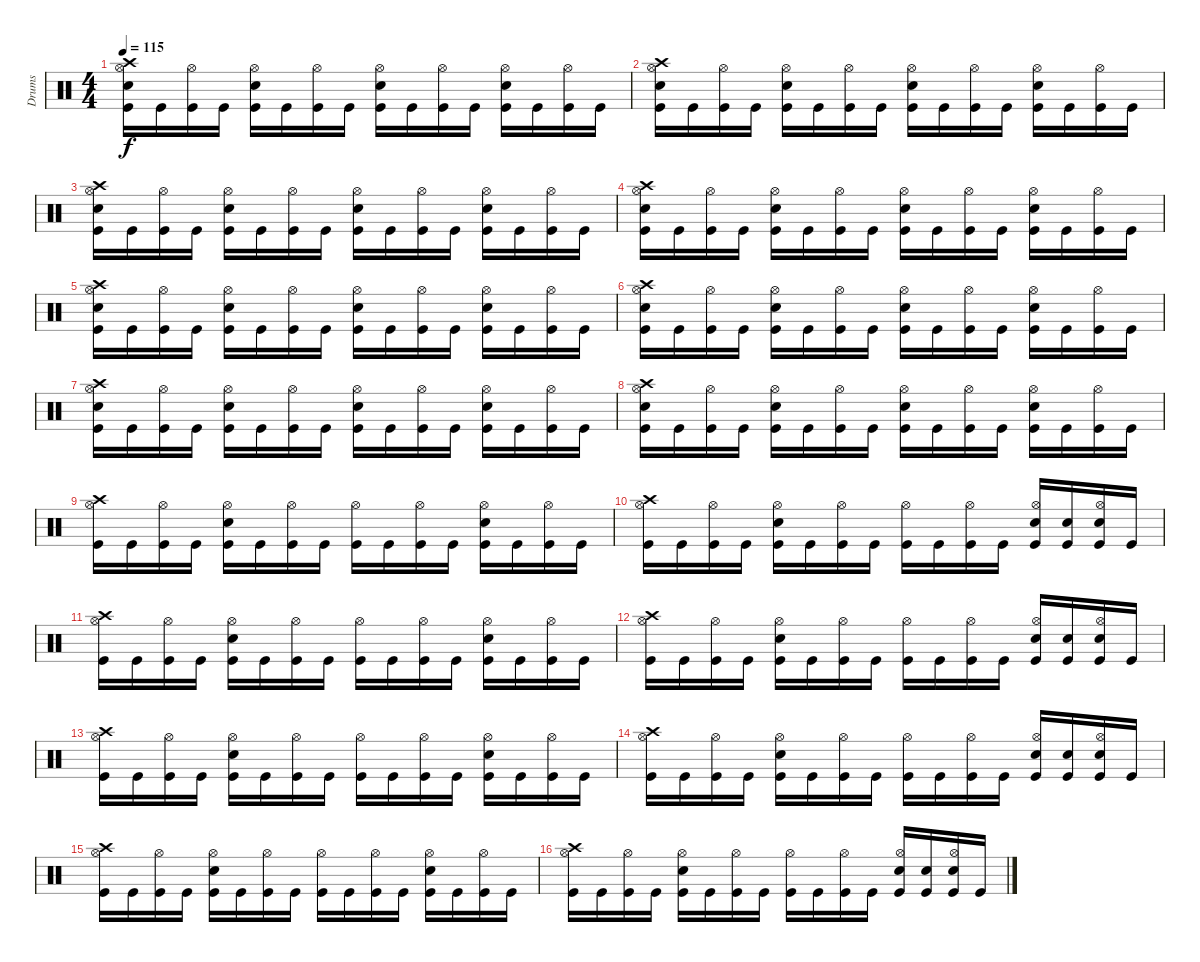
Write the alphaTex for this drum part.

\track ("Drums" "Drums") {instrument percussion}
\staff {score}
\articulation defaults
\ts (4 4)
\tempo 115
\clef neutral
\ks c
("Snare (hit) 2" "Crash high (hit)" "Kick (hit)" "Hi-Hat (open)").16{dy f} "Kick (hit)".16 ("Kick (hit)" "Hi-Hat (open)").16 "Kick (hit)".16 ("Snare (hit) 2" "Kick (hit)" "Hi-Hat (open)").16 "Kick (hit)".16 ("Kick (hit)" "Hi-Hat (open)").16 "Kick (hit)".16 ("Snare (hit) 2" "Hi-Hat (open)" "Kick (hit)").16 "Kick (hit)".16 ("Kick (hit)" "Hi-Hat (open)").16 "Kick (hit)".16 ("Snare (hit) 2" "Hi-Hat (open)" "Kick (hit)").16 "Kick (hit)".16 ("Kick (hit)" "Hi-Hat (open)").16 "Kick (hit)".16 |
("Snare (hit) 2" "Crash high (hit)" "Kick (hit)" "Hi-Hat (open)").16 "Kick (hit)".16 ("Kick (hit)" "Hi-Hat (open)").16 "Kick (hit)".16 ("Snare (hit) 2" "Kick (hit)" "Hi-Hat (open)").16 "Kick (hit)".16 ("Kick (hit)" "Hi-Hat (open)").16 "Kick (hit)".16 ("Snare (hit) 2" "Hi-Hat (open)" "Kick (hit)").16 "Kick (hit)".16 ("Kick (hit)" "Hi-Hat (open)").16 "Kick (hit)".16 ("Snare (hit) 2" "Hi-Hat (open)" "Kick (hit)").16 "Kick (hit)".16 ("Kick (hit)" "Hi-Hat (open)").16 "Kick (hit)".16 |
("Snare (hit) 2" "Crash high (hit)" "Kick (hit)" "Hi-Hat (open)").16 "Kick (hit)".16 ("Kick (hit)" "Hi-Hat (open)").16 "Kick (hit)".16 ("Snare (hit) 2" "Kick (hit)" "Hi-Hat (open)").16 "Kick (hit)".16 ("Kick (hit)" "Hi-Hat (open)").16 "Kick (hit)".16 ("Snare (hit) 2" "Hi-Hat (open)" "Kick (hit)").16 "Kick (hit)".16 ("Kick (hit)" "Hi-Hat (open)").16 "Kick (hit)".16 ("Snare (hit) 2" "Hi-Hat (open)" "Kick (hit)").16 "Kick (hit)".16 ("Kick (hit)" "Hi-Hat (open)").16 "Kick (hit)".16 |
("Snare (hit) 2" "Crash high (hit)" "Kick (hit)" "Hi-Hat (open)").16 "Kick (hit)".16 ("Kick (hit)" "Hi-Hat (open)").16 "Kick (hit)".16 ("Snare (hit) 2" "Kick (hit)" "Hi-Hat (open)").16 "Kick (hit)".16 ("Kick (hit)" "Hi-Hat (open)").16 "Kick (hit)".16 ("Snare (hit) 2" "Hi-Hat (open)" "Kick (hit)").16 "Kick (hit)".16 ("Kick (hit)" "Hi-Hat (open)").16 "Kick (hit)".16 ("Snare (hit) 2" "Hi-Hat (open)" "Kick (hit)").16 "Kick (hit)".16 ("Kick (hit)" "Hi-Hat (open)").16 "Kick (hit)".16 |
("Snare (hit) 2" "Crash high (hit)" "Kick (hit)" "Hi-Hat (open)").16 "Kick (hit)".16 ("Kick (hit)" "Hi-Hat (open)").16 "Kick (hit)".16 ("Snare (hit) 2" "Kick (hit)" "Hi-Hat (open)").16 "Kick (hit)".16 ("Kick (hit)" "Hi-Hat (open)").16 "Kick (hit)".16 ("Snare (hit) 2" "Hi-Hat (open)" "Kick (hit)").16 "Kick (hit)".16 ("Kick (hit)" "Hi-Hat (open)").16 "Kick (hit)".16 ("Snare (hit) 2" "Hi-Hat (open)" "Kick (hit)").16 "Kick (hit)".16 ("Kick (hit)" "Hi-Hat (open)").16 "Kick (hit)".16 |
("Snare (hit) 2" "Crash high (hit)" "Kick (hit)" "Hi-Hat (open)").16 "Kick (hit)".16 ("Kick (hit)" "Hi-Hat (open)").16 "Kick (hit)".16 ("Snare (hit) 2" "Kick (hit)" "Hi-Hat (open)").16 "Kick (hit)".16 ("Kick (hit)" "Hi-Hat (open)").16 "Kick (hit)".16 ("Snare (hit) 2" "Hi-Hat (open)" "Kick (hit)").16 "Kick (hit)".16 ("Kick (hit)" "Hi-Hat (open)").16 "Kick (hit)".16 ("Snare (hit) 2" "Hi-Hat (open)" "Kick (hit)").16 "Kick (hit)".16 ("Kick (hit)" "Hi-Hat (open)").16 "Kick (hit)".16 |
("Snare (hit) 2" "Crash high (hit)" "Kick (hit)" "Hi-Hat (open)").16 "Kick (hit)".16 ("Kick (hit)" "Hi-Hat (open)").16 "Kick (hit)".16 ("Snare (hit) 2" "Kick (hit)" "Hi-Hat (open)").16 "Kick (hit)".16 ("Kick (hit)" "Hi-Hat (open)").16 "Kick (hit)".16 ("Snare (hit) 2" "Hi-Hat (open)" "Kick (hit)").16 "Kick (hit)".16 ("Kick (hit)" "Hi-Hat (open)").16 "Kick (hit)".16 ("Snare (hit) 2" "Hi-Hat (open)" "Kick (hit)").16 "Kick (hit)".16 ("Kick (hit)" "Hi-Hat (open)").16 "Kick (hit)".16 |
("Snare (hit) 2" "Crash high (hit)" "Kick (hit)" "Hi-Hat (open)").16 "Kick (hit)".16 ("Kick (hit)" "Hi-Hat (open)").16 "Kick (hit)".16 ("Snare (hit) 2" "Kick (hit)" "Hi-Hat (open)").16 "Kick (hit)".16 ("Kick (hit)" "Hi-Hat (open)").16 "Kick (hit)".16 ("Snare (hit) 2" "Hi-Hat (open)" "Kick (hit)").16 "Kick (hit)".16 ("Kick (hit)" "Hi-Hat (open)").16 "Kick (hit)".16 ("Snare (hit) 2" "Hi-Hat (open)" "Kick (hit)").16 "Kick (hit)".16 ("Kick (hit)" "Hi-Hat (open)").16 "Kick (hit)".16 |
("Crash high (hit)" "Kick (hit)" "Hi-Hat (open)").16 "Kick (hit)".16 ("Kick (hit)" "Hi-Hat (open)").16 "Kick (hit)".16 ("Electric Snare (hit)" "Kick (hit)" "Hi-Hat (open)").16 "Kick (hit)".16 ("Kick (hit)" "Hi-Hat (open)").16 "Kick (hit)".16 ("Hi-Hat (open)" "Kick (hit)").16 "Kick (hit)".16 ("Kick (hit)" "Hi-Hat (open)").16 "Kick (hit)".16 ("Electric Snare (hit)" "Hi-Hat (open)" "Kick (hit)").16 "Kick (hit)".16 ("Kick (hit)" "Hi-Hat (open)").16 "Kick (hit)".16 |
("Crash high (hit)" "Kick (hit)" "Hi-Hat (open)").16 "Kick (hit)".16 ("Kick (hit)" "Hi-Hat (open)").16 "Kick (hit)".16 ("Electric Snare (hit)" "Kick (hit)" "Hi-Hat (open)").16 "Kick (hit)".16 ("Kick (hit)" "Hi-Hat (open)").16 "Kick (hit)".16 ("Hi-Hat (open)" "Kick (hit)").16 "Kick (hit)".16 ("Kick (hit)" "Hi-Hat (open)").16 "Kick (hit)".16 ("Electric Snare (hit)" "Hi-Hat (open)" "Kick (hit)").16 ("Electric Snare (hit)" "Kick (hit)").16 ("Electric Snare (hit)" "Kick (hit)" "Hi-Hat (open)").16 "Kick (hit)".16 |
("Crash high (hit)" "Kick (hit)" "Hi-Hat (open)").16 "Kick (hit)".16 ("Kick (hit)" "Hi-Hat (open)").16 "Kick (hit)".16 ("Electric Snare (hit)" "Kick (hit)" "Hi-Hat (open)").16 "Kick (hit)".16 ("Kick (hit)" "Hi-Hat (open)").16 "Kick (hit)".16 ("Hi-Hat (open)" "Kick (hit)").16 "Kick (hit)".16 ("Kick (hit)" "Hi-Hat (open)").16 "Kick (hit)".16 ("Electric Snare (hit)" "Hi-Hat (open)" "Kick (hit)").16 "Kick (hit)".16 ("Kick (hit)" "Hi-Hat (open)").16 "Kick (hit)".16 |
("Crash high (hit)" "Kick (hit)" "Hi-Hat (open)").16 "Kick (hit)".16 ("Kick (hit)" "Hi-Hat (open)").16 "Kick (hit)".16 ("Electric Snare (hit)" "Kick (hit)" "Hi-Hat (open)").16 "Kick (hit)".16 ("Kick (hit)" "Hi-Hat (open)").16 "Kick (hit)".16 ("Hi-Hat (open)" "Kick (hit)").16 "Kick (hit)".16 ("Kick (hit)" "Hi-Hat (open)").16 "Kick (hit)".16 ("Electric Snare (hit)" "Hi-Hat (open)" "Kick (hit)").16 ("Electric Snare (hit)" "Kick (hit)").16 ("Electric Snare (hit)" "Kick (hit)" "Hi-Hat (open)").16 "Kick (hit)".16 |
("Crash high (hit)" "Kick (hit)" "Hi-Hat (open)").16 "Kick (hit)".16 ("Kick (hit)" "Hi-Hat (open)").16 "Kick (hit)".16 ("Electric Snare (hit)" "Kick (hit)" "Hi-Hat (open)").16 "Kick (hit)".16 ("Kick (hit)" "Hi-Hat (open)").16 "Kick (hit)".16 ("Hi-Hat (open)" "Kick (hit)").16 "Kick (hit)".16 ("Kick (hit)" "Hi-Hat (open)").16 "Kick (hit)".16 ("Electric Snare (hit)" "Hi-Hat (open)" "Kick (hit)").16 "Kick (hit)".16 ("Kick (hit)" "Hi-Hat (open)").16 "Kick (hit)".16 |
("Crash high (hit)" "Kick (hit)" "Hi-Hat (open)").16 "Kick (hit)".16 ("Kick (hit)" "Hi-Hat (open)").16 "Kick (hit)".16 ("Electric Snare (hit)" "Kick (hit)" "Hi-Hat (open)").16 "Kick (hit)".16 ("Kick (hit)" "Hi-Hat (open)").16 "Kick (hit)".16 ("Hi-Hat (open)" "Kick (hit)").16 "Kick (hit)".16 ("Kick (hit)" "Hi-Hat (open)").16 "Kick (hit)".16 ("Electric Snare (hit)" "Hi-Hat (open)" "Kick (hit)").16 ("Electric Snare (hit)" "Kick (hit)").16 ("Electric Snare (hit)" "Kick (hit)" "Hi-Hat (open)").16 "Kick (hit)".16 |
("Crash high (hit)" "Kick (hit)" "Hi-Hat (open)").16 "Kick (hit)".16 ("Kick (hit)" "Hi-Hat (open)").16 "Kick (hit)".16 ("Electric Snare (hit)" "Kick (hit)" "Hi-Hat (open)").16 "Kick (hit)".16 ("Kick (hit)" "Hi-Hat (open)").16 "Kick (hit)".16 ("Hi-Hat (open)" "Kick (hit)").16 "Kick (hit)".16 ("Kick (hit)" "Hi-Hat (open)").16 "Kick (hit)".16 ("Electric Snare (hit)" "Hi-Hat (open)" "Kick (hit)").16 "Kick (hit)".16 ("Kick (hit)" "Hi-Hat (open)").16 "Kick (hit)".16 |
("Crash high (hit)" "Kick (hit)" "Hi-Hat (open)").16 "Kick (hit)".16 ("Kick (hit)" "Hi-Hat (open)").16 "Kick (hit)".16 ("Electric Snare (hit)" "Kick (hit)" "Hi-Hat (open)").16 "Kick (hit)".16 ("Kick (hit)" "Hi-Hat (open)").16 "Kick (hit)".16 ("Hi-Hat (open)" "Kick (hit)").16 "Kick (hit)".16 ("Kick (hit)" "Hi-Hat (open)").16 "Kick (hit)".16 ("Electric Snare (hit)" "Hi-Hat (open)" "Kick (hit)").16 ("Electric Snare (hit)" "Kick (hit)").16 ("Electric Snare (hit)" "Kick (hit)" "Hi-Hat (open)").16 "Kick (hit)".16
